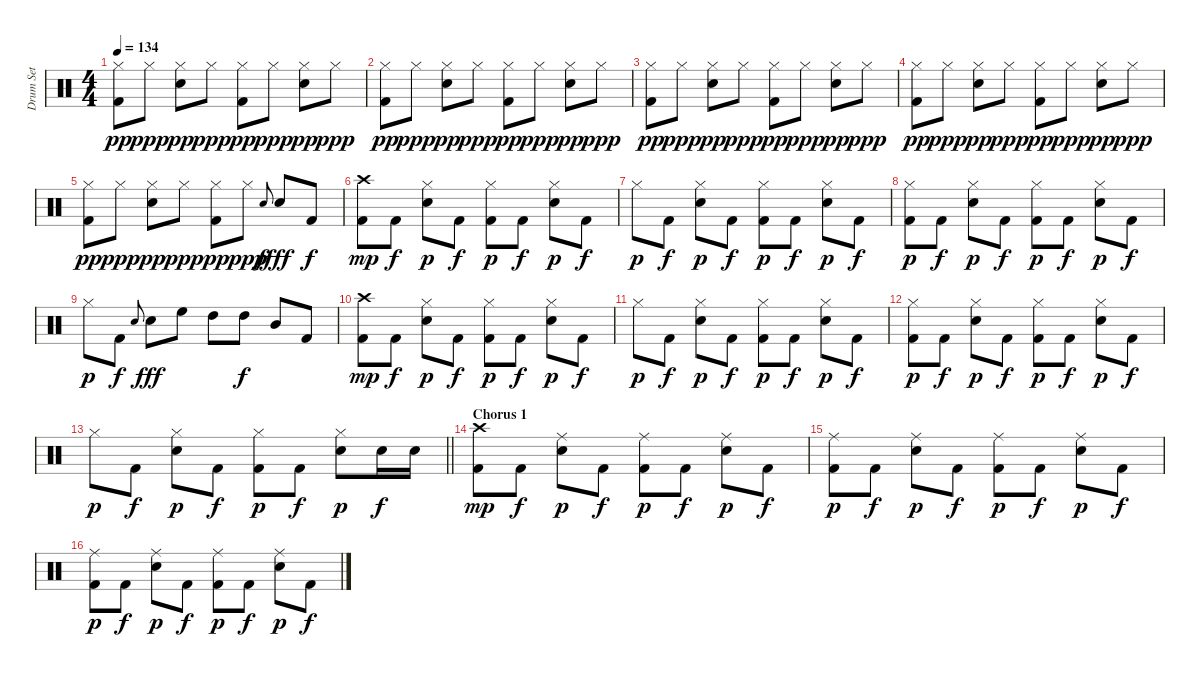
\track ("Drum Set" "Drum Set") {instrument percussion}
\staff {score}
\articulation defaults
\ts (4 4)
\tempo 134
\clef neutral
\ks c
("Hi-Hat (closed)" "Kick (hit) 2").8{dy pp} "Hi-Hat (closed)".8{dy ppp} ("Hi-Hat (closed)" "Electric Snare (hit)").8{dy pp} "Hi-Hat (closed)".8{dy ppp} ("Hi-Hat (closed)" "Kick (hit) 2").8{dy pp} "Hi-Hat (closed)".8{dy ppp} ("Hi-Hat (closed)" "Electric Snare (hit)").8{dy pp} "Hi-Hat (closed)".8{dy ppp} |
("Hi-Hat (closed)" "Kick (hit) 2").8{dy pp} "Hi-Hat (closed)".8{dy ppp} ("Hi-Hat (closed)" "Electric Snare (hit)").8{dy pp} "Hi-Hat (closed)".8{dy ppp} ("Hi-Hat (closed)" "Kick (hit) 2").8{dy pp} "Hi-Hat (closed)".8{dy ppp} ("Hi-Hat (closed)" "Electric Snare (hit)").8{dy pp} "Hi-Hat (closed)".8{dy ppp} |
("Hi-Hat (closed)" "Kick (hit) 2").8{dy pp} "Hi-Hat (closed)".8{dy ppp} ("Hi-Hat (closed)" "Electric Snare (hit)").8{dy pp} "Hi-Hat (closed)".8{dy ppp} ("Hi-Hat (closed)" "Kick (hit) 2").8{dy pp} "Hi-Hat (closed)".8{dy ppp} ("Hi-Hat (closed)" "Electric Snare (hit)").8{dy pp} "Hi-Hat (closed)".8{dy ppp} |
("Hi-Hat (closed)" "Kick (hit) 2").8{dy pp} "Hi-Hat (closed)".8{dy ppp} ("Hi-Hat (closed)" "Electric Snare (hit)").8{dy pp} "Hi-Hat (closed)".8{dy ppp} ("Hi-Hat (closed)" "Kick (hit) 2").8{dy pp} "Hi-Hat (closed)".8{dy ppp} ("Hi-Hat (closed)" "Electric Snare (hit)").8{dy pp} "Hi-Hat (closed)".8{dy ppp} |
("Hi-Hat (closed)" "Kick (hit) 2").8{dy pp} "Hi-Hat (closed)".8{dy ppp} ("Hi-Hat (closed)" "Electric Snare (hit)").8{dy pp} "Hi-Hat (closed)".8{dy ppp} ("Hi-Hat (closed)" "Kick (hit) 2").8{dy pp} "Hi-Hat (closed)".8{dy ppp} "Electric Snare (hit)".8{gr onbeat dy f} "Electric Snare (hit)".8{dy fff} "Kick (hit) 2".8{dy f} |
("Kick (hit) 2" "Crash high (hit)").8{dy mp} "Kick (hit) 2".8{dy f} ("Electric Snare (hit)" "Hi-Hat (closed)").8{dy p} "Kick (hit) 2".8{dy f} ("Kick (hit) 2" "Hi-Hat (closed)").8{dy p} "Kick (hit) 2".8{dy f} ("Electric Snare (hit)" "Hi-Hat (closed)").8{dy p} "Kick (hit) 2".8{dy f} |
"Hi-Hat (closed)".8{dy p} "Kick (hit) 2".8{dy f} ("Electric Snare (hit)" "Hi-Hat (closed)").8{dy p} "Kick (hit) 2".8{dy f} ("Kick (hit) 2" "Hi-Hat (closed)").8{dy p} "Kick (hit) 2".8{dy f} ("Electric Snare (hit)" "Hi-Hat (closed)").8{dy p} "Kick (hit) 2".8{dy f} |
("Hi-Hat (closed)" "Kick (hit) 2").8{dy p} "Kick (hit) 2".8{dy f} ("Electric Snare (hit)" "Hi-Hat (closed)").8{dy p} "Kick (hit) 2".8{dy f} ("Kick (hit) 2" "Hi-Hat (closed)").8{dy p} "Kick (hit) 2".8{dy f} ("Electric Snare (hit)" "Hi-Hat (closed)").8{dy p} "Kick (hit) 2".8{dy f} |
"Hi-Hat (closed)".8{dy p} "Kick (hit) 2".8{dy f} "Electric Snare (hit)".8{gr onbeat} "Electric Snare (hit)".8{dy fff} "High Floor Tom (hit)".8 "High Tom (hit)".8 "High Tom (hit)".8{dy f} "Mid Tom (hit)".8 "Kick (hit) 2".8 |
("Kick (hit) 2" "Crash high (hit)").8{dy mp} "Kick (hit) 2".8{dy f} ("Electric Snare (hit)" "Hi-Hat (closed)").8{dy p} "Kick (hit) 2".8{dy f} ("Kick (hit) 2" "Hi-Hat (closed)").8{dy p} "Kick (hit) 2".8{dy f} ("Electric Snare (hit)" "Hi-Hat (closed)").8{dy p} "Kick (hit) 2".8{dy f} |
"Hi-Hat (closed)".8{dy p} "Kick (hit) 2".8{dy f} ("Electric Snare (hit)" "Hi-Hat (closed)").8{dy p} "Kick (hit) 2".8{dy f} ("Kick (hit) 2" "Hi-Hat (closed)").8{dy p} "Kick (hit) 2".8{dy f} ("Electric Snare (hit)" "Hi-Hat (closed)").8{dy p} "Kick (hit) 2".8{dy f} |
("Hi-Hat (closed)" "Kick (hit) 2").8{dy p} "Kick (hit) 2".8{dy f} ("Electric Snare (hit)" "Hi-Hat (closed)").8{dy p} "Kick (hit) 2".8{dy f} ("Kick (hit) 2" "Hi-Hat (closed)").8{dy p} "Kick (hit) 2".8{dy f} ("Electric Snare (hit)" "Hi-Hat (closed)").8{dy p} "Kick (hit) 2".8{dy f} |
\barLineRight lightlight "Hi-Hat (closed)".8{dy p} "Kick (hit) 2".8{dy f}
("Electric Snare (hit)" "Hi-Hat (closed)").8{dy p} "Kick (hit) 2".8{dy f} ("Kick (hit) 2" "Hi-Hat (closed)").8{dy p} "Kick (hit) 2".8{dy f} ("Electric Snare (hit)" "Hi-Hat (closed)").8{dy p} "Electric Snare (hit)".16{dy f} "Electric Snare (hit)".16 |
\section ("" "Chorus 1")
("Crash high (hit)" "Kick (hit) 2").8{dy mp} "Kick (hit) 2".8{dy f} ("Electric Snare (hit)" "Ride (middle)").8{dy p} "Kick (hit) 2".8{dy f} ("Kick (hit) 2" "Ride (middle)").8{dy p} "Kick (hit) 2".8{dy f} ("Electric Snare (hit)" "Ride (middle)").8{dy p} "Kick (hit) 2".8{dy f} |
("Ride (middle)" "Kick (hit) 2").8{dy p} "Kick (hit) 2".8{dy f} ("Electric Snare (hit)" "Ride (middle)").8{dy p} "Kick (hit) 2".8{dy f} ("Kick (hit) 2" "Ride (middle)").8{dy p} "Kick (hit) 2".8{dy f} ("Electric Snare (hit)" "Ride (middle)").8{dy p} "Kick (hit) 2".8{dy f} |
("Ride (middle)" "Kick (hit) 2").8{dy p} "Kick (hit) 2".8{dy f} ("Electric Snare (hit)" "Ride (middle)").8{dy p} "Kick (hit) 2".8{dy f} ("Kick (hit) 2" "Ride (middle)").8{dy p} "Kick (hit) 2".8{dy f} ("Electric Snare (hit)" "Ride (middle)").8{dy p} "Kick (hit) 2".8{dy f}
